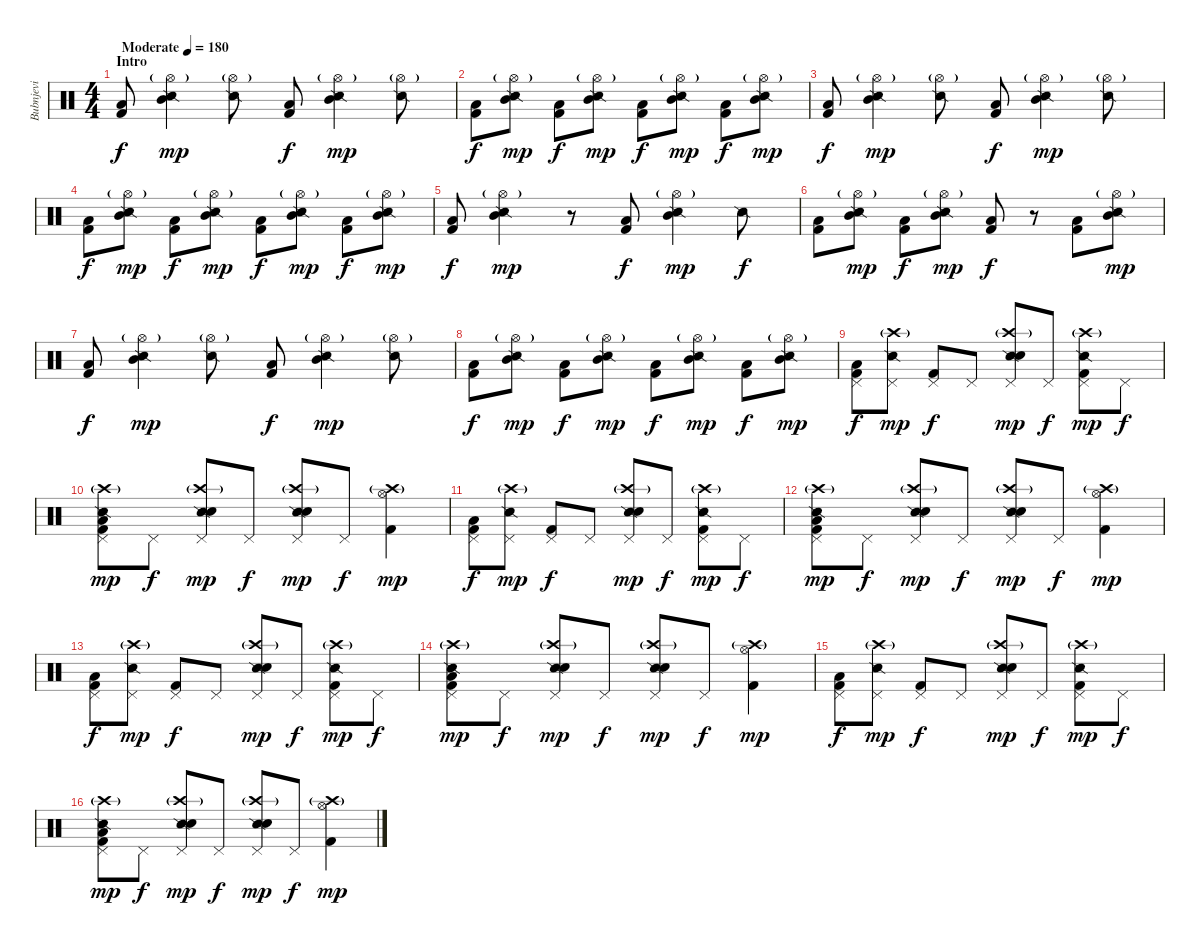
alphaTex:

\track ("Bubnjevi" "Bubnjevi") {instrument percussion}
\staff {score}
\articulation defaults
\ts (4 4)
\section ("" "Intro")
\tempo (180 "Moderate")
\clef neutral
\ks c
("Low Tom (hit)" "Kick (hit) 2").8{dy f} ("Hi-Hat (open)"{g} "Snare (side stick) 2" "Mid Tom (hit)").4{dy mp} ("Hi-Hat (open)"{g} "Snare (side stick) 2").8 ("Low Tom (hit)" "Kick (hit) 2").8{dy f} ("Hi-Hat (open)"{g} "Snare (side stick) 2" "Mid Tom (hit)").4{dy mp} ("Hi-Hat (open)"{g} "Snare (side stick) 2").8 |
("Low Tom (hit)" "Kick (hit) 2").8{dy f} ("Hi-Hat (open)"{g} "Snare (side stick) 2" "Mid Tom (hit)").8{dy mp} ("Low Tom (hit)" "Kick (hit) 2").8{dy f} ("Hi-Hat (open)"{g} "Snare (side stick) 2" "Mid Tom (hit)").8{dy mp} ("Low Tom (hit)" "Kick (hit) 2").8{dy f} ("Hi-Hat (open)"{g} "Snare (side stick) 2" "Mid Tom (hit)").8{dy mp} ("Low Tom (hit)" "Kick (hit) 2").8{dy f} ("Hi-Hat (open)"{g} "Snare (side stick) 2" "Mid Tom (hit)").8{dy mp} |
("Low Tom (hit)" "Kick (hit) 2").8{dy f} ("Hi-Hat (open)"{g} "Snare (side stick) 2" "Mid Tom (hit)").4{dy mp} ("Hi-Hat (open)"{g} "Snare (side stick) 2").8 ("Low Tom (hit)" "Kick (hit) 2").8{dy f} ("Hi-Hat (open)"{g} "Snare (side stick) 2" "Mid Tom (hit)").4{dy mp} ("Hi-Hat (open)"{g} "Snare (side stick) 2").8 |
("Low Tom (hit)" "Kick (hit) 2").8{dy f} ("Hi-Hat (open)"{g} "Snare (side stick) 2" "Mid Tom (hit)").8{dy mp} ("Low Tom (hit)" "Kick (hit) 2").8{dy f} ("Hi-Hat (open)"{g} "Snare (side stick) 2" "Mid Tom (hit)").8{dy mp} ("Low Tom (hit)" "Kick (hit) 2").8{dy f} ("Hi-Hat (open)"{g} "Snare (side stick) 2" "Mid Tom (hit)").8{dy mp} ("Low Tom (hit)" "Kick (hit) 2").8{dy f} ("Hi-Hat (open)"{g} "Snare (side stick) 2" "Mid Tom (hit)").8{dy mp} |
("Low Tom (hit)" "Kick (hit) 2").8{dy f} ("Hi-Hat (open)"{g} "Snare (side stick) 2" "Mid Tom (hit)").4{dy mp} r.8 ("Low Tom (hit)" "Kick (hit) 2").8{dy f} ("Hi-Hat (open)"{g} "Snare (side stick) 2" "Mid Tom (hit)").4{dy mp} "Snare (side stick) 2".8{dy f} |
("Low Tom (hit)" "Kick (hit) 2").8 ("Hi-Hat (open)"{g} "Snare (side stick) 2" "Mid Tom (hit)").8{dy mp} ("Low Tom (hit)" "Kick (hit) 2").8{dy f} ("Hi-Hat (open)"{g} "Snare (side stick) 2" "Mid Tom (hit)").8{dy mp} ("Low Tom (hit)" "Kick (hit) 2").8{dy f} r.8 ("Low Tom (hit)" "Kick (hit) 2").8 ("Hi-Hat (open)"{g} "Snare (side stick) 2" "Mid Tom (hit)").8{dy mp} |
("Low Tom (hit)" "Kick (hit) 2").8{dy f} ("Hi-Hat (open)"{g} "Snare (side stick) 2" "Mid Tom (hit)").4{dy mp} ("Hi-Hat (open)"{g} "Snare (side stick) 2").8 ("Low Tom (hit)" "Kick (hit) 2").8{dy f} ("Hi-Hat (open)"{g} "Snare (side stick) 2" "Mid Tom (hit)").4{dy mp} ("Hi-Hat (open)"{g} "Snare (side stick) 2").8 |
("Low Tom (hit)" "Kick (hit) 2").8{dy f} ("Hi-Hat (open)"{g} "Snare (side stick) 2" "Mid Tom (hit)").8{dy mp} ("Low Tom (hit)" "Kick (hit) 2").8{dy f} ("Hi-Hat (open)"{g} "Snare (side stick) 2" "Mid Tom (hit)").8{dy mp} ("Low Tom (hit)" "Kick (hit) 2").8{dy f} ("Hi-Hat (open)"{g} "Snare (side stick) 2" "Mid Tom (hit)").8{dy mp} ("Low Tom (hit)" "Kick (hit) 2").8{dy f} ("Hi-Hat (open)"{g} "Snare (side stick) 2" "Mid Tom (hit)").8{dy mp} |
("Pedal Hi-Hat (hit)" "Low Tom (hit)" "Kick (hit) 2").8{dy f} ("Crash high (hit)"{g} "Snare (side stick) 2" "Pedal Hi-Hat (hit)").8{dy mp} ("Pedal Hi-Hat (hit)" "Kick (hit) 2").8{dy f} "Pedal Hi-Hat (hit)".8 ("Crash high (hit)"{g} "Snare (side stick) 2" "Pedal Hi-Hat (hit)" "Electric Snare (hit)").8{dy mp} "Pedal Hi-Hat (hit)".8{dy f} ("Crash high (hit)"{g} "Snare (side stick) 2" "Pedal Hi-Hat (hit)" "Kick (hit) 2").8{dy mp} "Pedal Hi-Hat (hit)".8{dy f} |
("Crash high (hit)"{g} "Snare (side stick) 2" "Pedal Hi-Hat (hit)" "Low Tom (hit)" "Kick (hit) 2").8{dy mp} "Pedal Hi-Hat (hit)".8{dy f} ("Crash high (hit)"{g} "Snare (side stick) 2" "Pedal Hi-Hat (hit)" "Hand Clap (hit)").8{dy mp} "Pedal Hi-Hat (hit)".8{dy f} ("Crash high (hit)"{g} "Snare (side stick) 2" "Pedal Hi-Hat (hit)" "Electric Snare (hit)").8{dy mp} "Pedal Hi-Hat (hit)".8{dy f} ("Crash high (hit)"{g} "Hi-Hat (open)" "Kick (hit) 2").4{dy mp} |
("Pedal Hi-Hat (hit)" "Low Tom (hit)" "Kick (hit) 2").8{dy f} ("Crash high (hit)"{g} "Snare (side stick) 2" "Pedal Hi-Hat (hit)").8{dy mp} ("Pedal Hi-Hat (hit)" "Kick (hit) 2").8{dy f} "Pedal Hi-Hat (hit)".8 ("Crash high (hit)"{g} "Snare (side stick) 2" "Pedal Hi-Hat (hit)" "Electric Snare (hit)").8{dy mp} "Pedal Hi-Hat (hit)".8{dy f} ("Crash high (hit)"{g} "Snare (side stick) 2" "Pedal Hi-Hat (hit)" "Kick (hit) 2").8{dy mp} "Pedal Hi-Hat (hit)".8{dy f} |
("Crash high (hit)"{g} "Snare (side stick) 2" "Pedal Hi-Hat (hit)" "Low Tom (hit)" "Kick (hit) 2").8{dy mp} "Pedal Hi-Hat (hit)".8{dy f} ("Crash high (hit)"{g} "Snare (side stick) 2" "Pedal Hi-Hat (hit)" "Hand Clap (hit)").8{dy mp} "Pedal Hi-Hat (hit)".8{dy f} ("Crash high (hit)"{g} "Snare (side stick) 2" "Pedal Hi-Hat (hit)" "Electric Snare (hit)").8{dy mp} "Pedal Hi-Hat (hit)".8{dy f} ("Crash high (hit)"{g} "Hi-Hat (open)" "Kick (hit) 2").4{dy mp} |
("Pedal Hi-Hat (hit)" "Low Tom (hit)" "Kick (hit) 2").8{dy f} ("Crash high (hit)"{g} "Snare (side stick) 2" "Pedal Hi-Hat (hit)").8{dy mp} ("Pedal Hi-Hat (hit)" "Kick (hit) 2").8{dy f} "Pedal Hi-Hat (hit)".8 ("Crash high (hit)"{g} "Snare (side stick) 2" "Pedal Hi-Hat (hit)" "Electric Snare (hit)").8{dy mp} "Pedal Hi-Hat (hit)".8{dy f} ("Crash high (hit)"{g} "Snare (side stick) 2" "Pedal Hi-Hat (hit)" "Kick (hit) 2").8{dy mp} "Pedal Hi-Hat (hit)".8{dy f} |
("Crash high (hit)"{g} "Snare (side stick) 2" "Pedal Hi-Hat (hit)" "Low Tom (hit)" "Kick (hit) 2").8{dy mp} "Pedal Hi-Hat (hit)".8{dy f} ("Crash high (hit)"{g} "Snare (side stick) 2" "Pedal Hi-Hat (hit)" "Hand Clap (hit)").8{dy mp} "Pedal Hi-Hat (hit)".8{dy f} ("Crash high (hit)"{g} "Snare (side stick) 2" "Pedal Hi-Hat (hit)" "Electric Snare (hit)").8{dy mp} "Pedal Hi-Hat (hit)".8{dy f} ("Crash high (hit)"{g} "Hi-Hat (open)" "Kick (hit) 2").4{dy mp} |
("Pedal Hi-Hat (hit)" "Low Tom (hit)" "Kick (hit) 2").8{dy f} ("Crash high (hit)"{g} "Snare (side stick) 2" "Pedal Hi-Hat (hit)").8{dy mp} ("Pedal Hi-Hat (hit)" "Kick (hit) 2").8{dy f} "Pedal Hi-Hat (hit)".8 ("Crash high (hit)"{g} "Snare (side stick) 2" "Pedal Hi-Hat (hit)" "Electric Snare (hit)").8{dy mp} "Pedal Hi-Hat (hit)".8{dy f} ("Crash high (hit)"{g} "Snare (side stick) 2" "Pedal Hi-Hat (hit)" "Kick (hit) 2").8{dy mp} "Pedal Hi-Hat (hit)".8{dy f} |
("Crash high (hit)"{g} "Snare (side stick) 2" "Pedal Hi-Hat (hit)" "Low Tom (hit)" "Kick (hit) 2").8{dy mp} "Pedal Hi-Hat (hit)".8{dy f} ("Crash high (hit)"{g} "Snare (side stick) 2" "Pedal Hi-Hat (hit)" "Hand Clap (hit)").8{dy mp} "Pedal Hi-Hat (hit)".8{dy f} ("Crash high (hit)"{g} "Snare (side stick) 2" "Pedal Hi-Hat (hit)" "Electric Snare (hit)").8{dy mp} "Pedal Hi-Hat (hit)".8{dy f} ("Crash high (hit)"{g} "Hi-Hat (open)" "Kick (hit) 2").4{dy mp}
